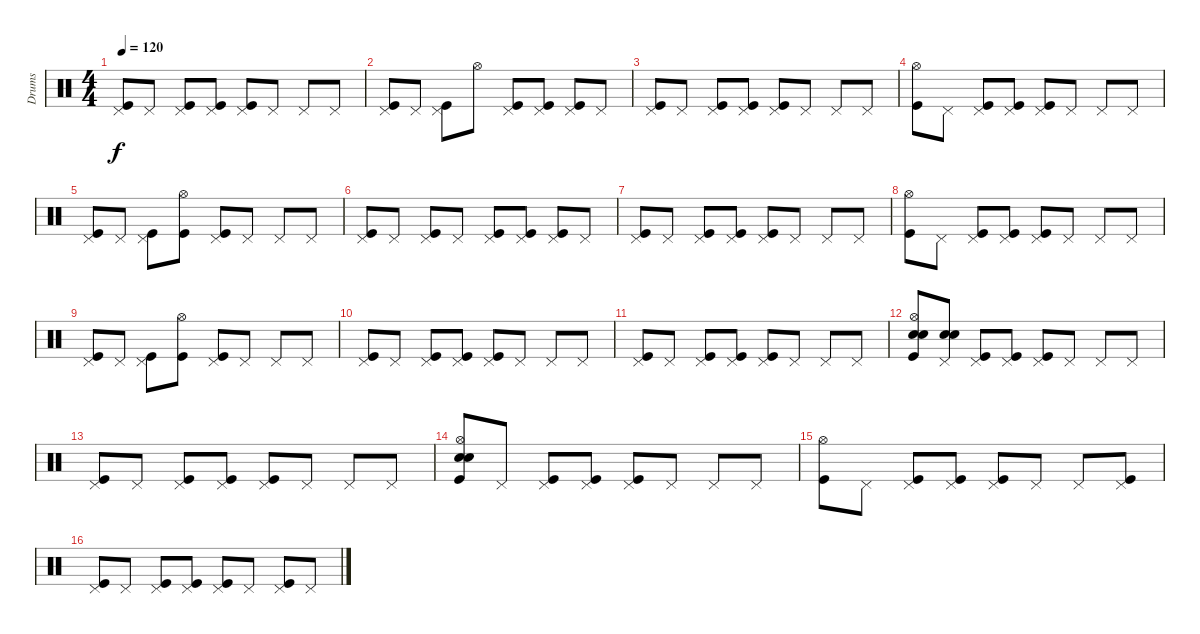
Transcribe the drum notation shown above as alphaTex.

\track ("Drums" "Drums") {instrument percussion}
\staff {score}
\articulation defaults
\ts (4 4)
\tempo 120
\clef neutral
\ks c
("Pedal Hi-Hat (hit)" "Kick (hit)").8{dy f volume 10} "Pedal Hi-Hat (hit)".8 ("Pedal Hi-Hat (hit)" "Kick (hit)").8 ("Pedal Hi-Hat (hit)" "Kick (hit)").8 ("Pedal Hi-Hat (hit)" "Kick (hit)").8 "Pedal Hi-Hat (hit)".8 "Pedal Hi-Hat (hit)".8 "Pedal Hi-Hat (hit)".8 |
("Pedal Hi-Hat (hit)" "Kick (hit)").8 "Pedal Hi-Hat (hit)".8 ("Pedal Hi-Hat (hit)" "Kick (hit)").8 "Hi-Hat (open)".8 ("Pedal Hi-Hat (hit)" "Kick (hit)").8 ("Pedal Hi-Hat (hit)" "Kick (hit)").8 ("Pedal Hi-Hat (hit)" "Kick (hit)").8 "Pedal Hi-Hat (hit)".8 |
("Pedal Hi-Hat (hit)" "Kick (hit)").8 "Pedal Hi-Hat (hit)".8 ("Pedal Hi-Hat (hit)" "Kick (hit)").8 ("Pedal Hi-Hat (hit)" "Kick (hit)").8 ("Pedal Hi-Hat (hit)" "Kick (hit)").8 "Pedal Hi-Hat (hit)".8 "Pedal Hi-Hat (hit)".8 "Pedal Hi-Hat (hit)".8 |
("Hi-Hat (open)" "Kick (hit)").8 "Pedal Hi-Hat (hit)".8 ("Pedal Hi-Hat (hit)" "Kick (hit)").8 ("Pedal Hi-Hat (hit)" "Kick (hit)").8 ("Pedal Hi-Hat (hit)" "Kick (hit)").8 "Pedal Hi-Hat (hit)".8 "Pedal Hi-Hat (hit)".8 "Pedal Hi-Hat (hit)".8 |
("Pedal Hi-Hat (hit)" "Kick (hit)").8 "Pedal Hi-Hat (hit)".8 ("Pedal Hi-Hat (hit)" "Kick (hit)").8 ("Hi-Hat (open)" "Kick (hit)").8 ("Pedal Hi-Hat (hit)" "Kick (hit)").8 "Pedal Hi-Hat (hit)".8 "Pedal Hi-Hat (hit)".8 "Pedal Hi-Hat (hit)".8 |
("Pedal Hi-Hat (hit)" "Kick (hit)").8 "Pedal Hi-Hat (hit)".8 ("Pedal Hi-Hat (hit)" "Kick (hit)").8 "Pedal Hi-Hat (hit)".8 ("Pedal Hi-Hat (hit)" "Kick (hit)").8 ("Pedal Hi-Hat (hit)" "Kick (hit)").8 ("Pedal Hi-Hat (hit)" "Kick (hit)").8 "Pedal Hi-Hat (hit)".8 |
("Pedal Hi-Hat (hit)" "Kick (hit)").8 "Pedal Hi-Hat (hit)".8 ("Pedal Hi-Hat (hit)" "Kick (hit)").8 ("Pedal Hi-Hat (hit)" "Kick (hit)").8 ("Pedal Hi-Hat (hit)" "Kick (hit)").8 "Pedal Hi-Hat (hit)".8 "Pedal Hi-Hat (hit)".8 "Pedal Hi-Hat (hit)".8 |
("Hi-Hat (open)" "Kick (hit)").8 "Pedal Hi-Hat (hit)".8 ("Pedal Hi-Hat (hit)" "Kick (hit)").8 ("Pedal Hi-Hat (hit)" "Kick (hit)").8 ("Pedal Hi-Hat (hit)" "Kick (hit)").8 "Pedal Hi-Hat (hit)".8 "Pedal Hi-Hat (hit)".8 "Pedal Hi-Hat (hit)".8 |
("Pedal Hi-Hat (hit)" "Kick (hit)").8 "Pedal Hi-Hat (hit)".8 ("Pedal Hi-Hat (hit)" "Kick (hit)").8 ("Hi-Hat (open)" "Kick (hit)").8 ("Pedal Hi-Hat (hit)" "Kick (hit)").8 "Pedal Hi-Hat (hit)".8 "Pedal Hi-Hat (hit)".8 "Pedal Hi-Hat (hit)".8 |
("Pedal Hi-Hat (hit)" "Kick (hit)").8 "Pedal Hi-Hat (hit)".8 ("Pedal Hi-Hat (hit)" "Kick (hit)").8 ("Pedal Hi-Hat (hit)" "Kick (hit)").8 ("Pedal Hi-Hat (hit)" "Kick (hit)").8 "Pedal Hi-Hat (hit)".8 "Pedal Hi-Hat (hit)".8 "Pedal Hi-Hat (hit)".8 |
("Pedal Hi-Hat (hit)" "Kick (hit)").8 "Pedal Hi-Hat (hit)".8 ("Pedal Hi-Hat (hit)" "Kick (hit)").8 ("Pedal Hi-Hat (hit)" "Kick (hit)").8 ("Pedal Hi-Hat (hit)" "Kick (hit)").8 "Pedal Hi-Hat (hit)".8 "Pedal Hi-Hat (hit)".8 "Pedal Hi-Hat (hit)".8 |
("Electric Snare (hit)" "Hi-Hat (open)" "Kick (hit)" "Snare (hit) 2").8 ("Electric Snare (hit)" "Pedal Hi-Hat (hit)" "Snare (hit) 2").8 ("Pedal Hi-Hat (hit)" "Kick (hit)").8 ("Pedal Hi-Hat (hit)" "Kick (hit)").8 ("Pedal Hi-Hat (hit)" "Kick (hit)").8 "Pedal Hi-Hat (hit)".8 "Pedal Hi-Hat (hit)".8 "Pedal Hi-Hat (hit)".8 |
("Pedal Hi-Hat (hit)" "Kick (hit)").8 "Pedal Hi-Hat (hit)".8 ("Pedal Hi-Hat (hit)" "Kick (hit)").8 ("Pedal Hi-Hat (hit)" "Kick (hit)").8 ("Pedal Hi-Hat (hit)" "Kick (hit)").8 "Pedal Hi-Hat (hit)".8 "Pedal Hi-Hat (hit)".8 "Pedal Hi-Hat (hit)".8 |
("Electric Snare (hit)" "Hi-Hat (open)" "Kick (hit)" "Snare (hit) 2").8 "Pedal Hi-Hat (hit)".8 ("Pedal Hi-Hat (hit)" "Kick (hit)").8 ("Pedal Hi-Hat (hit)" "Kick (hit)").8 ("Pedal Hi-Hat (hit)" "Kick (hit)").8 "Pedal Hi-Hat (hit)".8 "Pedal Hi-Hat (hit)".8 "Pedal Hi-Hat (hit)".8 |
("Hi-Hat (open)" "Kick (hit)").8 "Pedal Hi-Hat (hit)".8 ("Pedal Hi-Hat (hit)" "Kick (hit)").8 ("Pedal Hi-Hat (hit)" "Kick (hit)").8 ("Pedal Hi-Hat (hit)" "Kick (hit)").8 "Pedal Hi-Hat (hit)".8 "Pedal Hi-Hat (hit)".8 ("Pedal Hi-Hat (hit)" "Kick (hit)").8 |
("Pedal Hi-Hat (hit)" "Kick (hit)").8 "Pedal Hi-Hat (hit)".8 ("Pedal Hi-Hat (hit)" "Kick (hit)").8 ("Pedal Hi-Hat (hit)" "Kick (hit)").8 ("Pedal Hi-Hat (hit)" "Kick (hit)").8 "Pedal Hi-Hat (hit)".8 ("Pedal Hi-Hat (hit)" "Kick (hit)").8 "Pedal Hi-Hat (hit)".8
